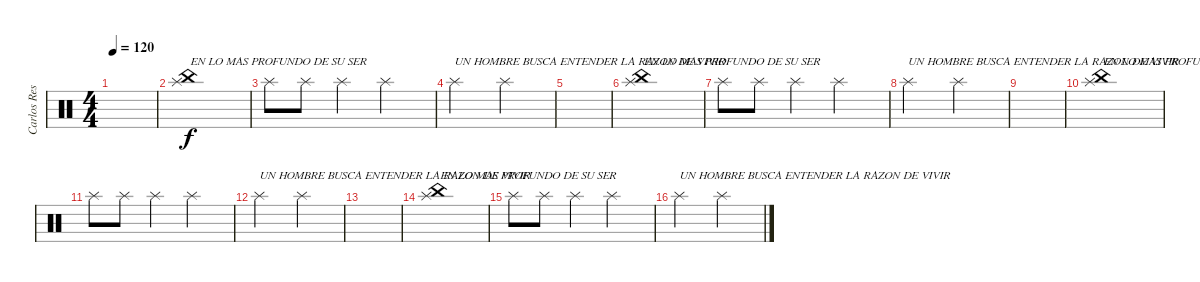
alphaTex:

\track ("Carlos Restrepo" "Carlos Res") {instrument percussion}
\staff {score}
\articulation defaults
\ts (4 4)
\tempo 120
\clef neutral
\ks c
|
("Splash (hit)" "China (hit)").1{txt "EN LO MAS PROFUNDO DE SU SER "} |
"Splash (hit)".8 "Splash (hit)".8 "Splash (hit)".4 "Splash (hit)".2 |
"Splash (hit)".2{txt "UN HOMBRE BUSCA ENTENDER LA RAZON DE VIVIR"} "Splash (hit)".2 |
|
("Splash (hit)" "China (hit)").1{txt "EN LO MAS PROFUNDO DE SU SER "} |
"Splash (hit)".8 "Splash (hit)".8 "Splash (hit)".4 "Splash (hit)".2 |
"Splash (hit)".2{txt "UN HOMBRE BUSCA ENTENDER LA RAZON DE VIVIR"} "Splash (hit)".2 |
|
("Splash (hit)" "China (hit)").1{txt "EN LO MAS PROFUNDO DE SU SER "} |
"Splash (hit)".8 "Splash (hit)".8 "Splash (hit)".4 "Splash (hit)".2 |
"Splash (hit)".2{txt "UN HOMBRE BUSCA ENTENDER LA RAZON DE VIVIR"} "Splash (hit)".2 |
|
("Splash (hit)" "China (hit)").1{txt "EN LO MAS PROFUNDO DE SU SER "} |
"Splash (hit)".8 "Splash (hit)".8 "Splash (hit)".4 "Splash (hit)".2 |
"Splash (hit)".2{txt "UN HOMBRE BUSCA ENTENDER LA RAZON DE VIVIR"} "Splash (hit)".2
